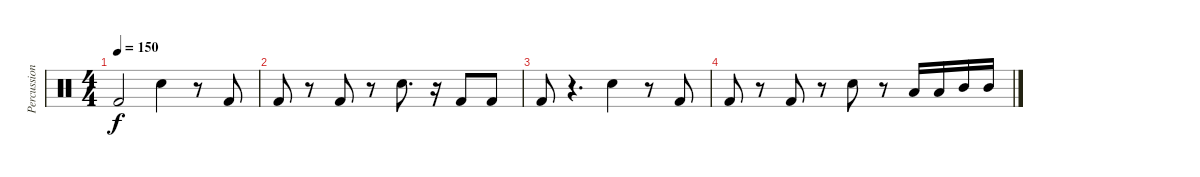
\track ("Percussion" "Percussion") {instrument percussion}
\staff {score}
\articulation defaults
\ts (4 4)
\tempo 150
\clef neutral
\ks c "Kick (hit) 2".2{dy f} "Electric Snare (hit)".4
r.8 "Kick (hit) 2".8 |
"Kick (hit) 2".8 r.8 "Kick (hit) 2".8 r.8 "Electric Snare (hit)".8{d} r.16 "Kick (hit) 2".8 "Kick (hit) 2".8 |
"Kick (hit) 2".8 r.4{d} "Electric Snare (hit)".4 r.8 "Kick (hit) 2".8 |
"Kick (hit) 2".8 r.8 "Kick (hit) 2".8 r.8 "Electric Snare (hit)".8 r.8 "Low Tom (hit)".16 "Low Tom (hit)".16 "Mid Tom (hit)".16 "Mid Tom (hit)".16
